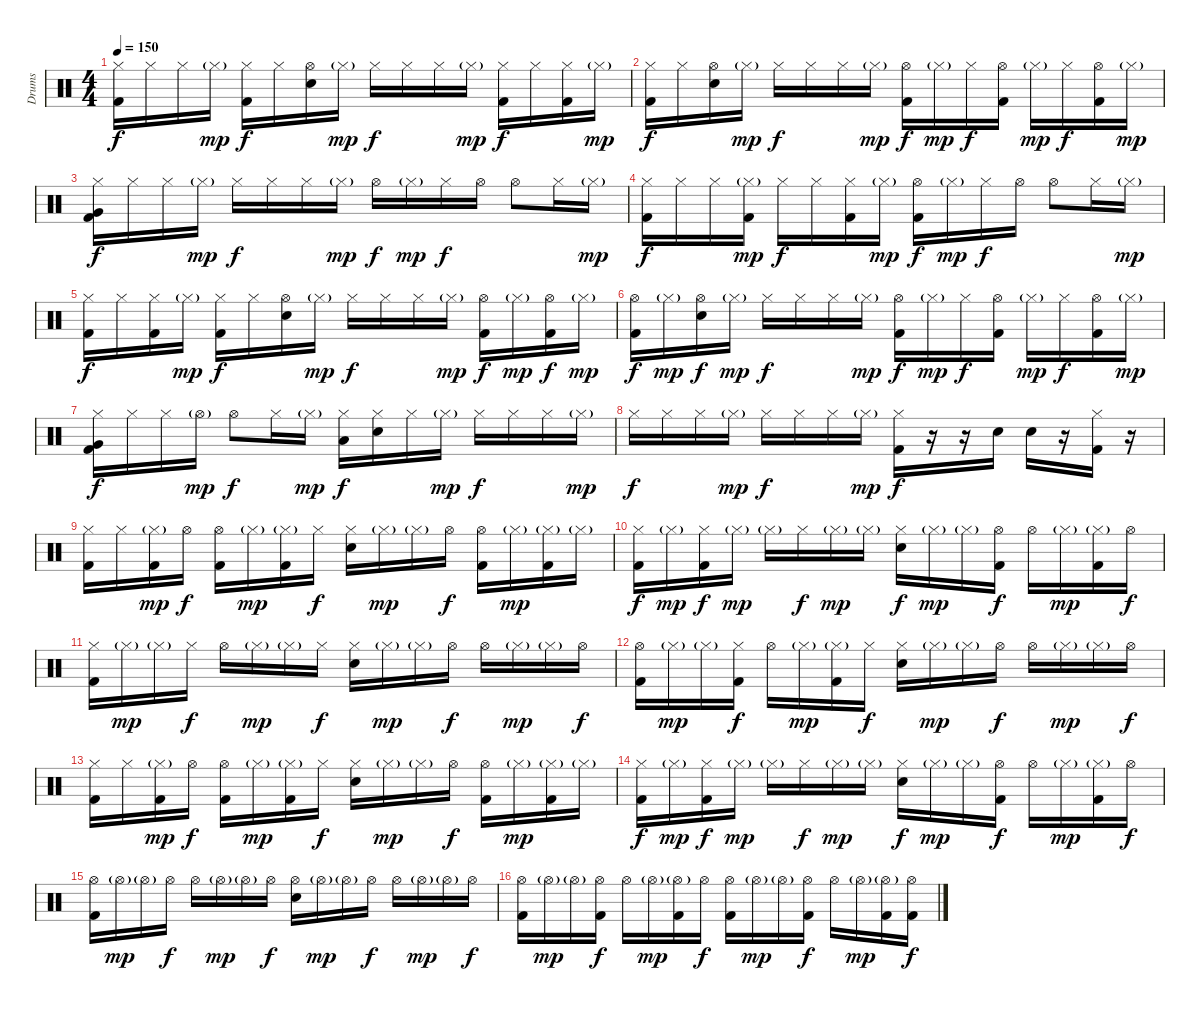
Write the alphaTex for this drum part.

\track ("Drums" "Drums") {instrument percussion}
\staff {score}
\articulation defaults
\ts (4 4)
\tempo 150
\clef neutral
\ks c
("Hi-Hat (closed)" "Kick (hit) 2").16{dy f} "Hi-Hat (closed)".16 "Hi-Hat (closed)".16 "Hi-Hat (closed)"{g}.16{dy mp} ("Hi-Hat (closed)" "Kick (hit) 2").16{dy f} "Hi-Hat (closed)".16 ("Hi-Hat (open)" "Snare (hit) 2").16 "Hi-Hat (closed)"{g}.16{dy mp} "Hi-Hat (closed)".16{dy f} "Hi-Hat (closed)".16 "Hi-Hat (closed)".16 "Hi-Hat (closed)"{g}.16{dy mp} ("Hi-Hat (closed)" "Kick (hit) 2").16{dy f} "Hi-Hat (closed)".16 ("Hi-Hat (closed)" "Kick (hit) 2").16 "Hi-Hat (closed)"{g}.16{dy mp} |
("Hi-Hat (closed)" "Kick (hit) 2").16{dy f} "Hi-Hat (closed)".16 ("Hi-Hat (open)" "Snare (hit) 2").16 "Hi-Hat (closed)"{g}.16{dy mp} "Hi-Hat (closed)".16{dy f} "Hi-Hat (closed)".16 "Hi-Hat (closed)".16 "Hi-Hat (closed)"{g}.16{dy mp} ("Hi-Hat (open)" "Kick (hit) 2").16{dy f} "Hi-Hat (closed)"{g}.16{dy mp} "Hi-Hat (closed)".16{dy f} ("Hi-Hat (open)" "Kick (hit) 2").16 "Hi-Hat (closed)"{g}.16{dy mp} "Hi-Hat (closed)".16{dy f} ("Hi-Hat (open)" "Kick (hit) 2").16 "Hi-Hat (closed)"{g}.16{dy mp} |
("Hi-Hat (closed)" "Very Low Tom (hit)" "Kick (hit) 2").16{dy f} "Hi-Hat (closed)".16 "Hi-Hat (closed)".16 "Hi-Hat (closed)"{g}.16{dy mp} "Hi-Hat (closed)".16{dy f} "Hi-Hat (closed)".16 "Hi-Hat (closed)".16 "Hi-Hat (closed)"{g}.16{dy mp} "Hi-Hat (open)".16{dy f} "Hi-Hat (closed)"{g}.16{dy mp} "Hi-Hat (closed)".16{dy f} "Hi-Hat (open)".16 "Hi-Hat (open)".8 "Hi-Hat (closed)".16 "Hi-Hat (closed)"{g}.16{dy mp} |
("Hi-Hat (closed)" "Kick (hit) 2").16{dy f} "Hi-Hat (closed)".16 "Hi-Hat (closed)".16 ("Hi-Hat (closed)"{g} "Kick (hit) 2").16{dy mp} "Hi-Hat (closed)".16{dy f} "Hi-Hat (closed)".16 ("Hi-Hat (closed)" "Kick (hit) 2").16 "Hi-Hat (closed)"{g}.16{dy mp} ("Hi-Hat (open)" "Kick (hit) 2").16{dy f} "Hi-Hat (closed)"{g}.16{dy mp} "Hi-Hat (closed)".16{dy f} "Hi-Hat (open)".16 "Hi-Hat (open)".8 "Hi-Hat (closed)".16 "Hi-Hat (closed)"{g}.16{dy mp} |
("Hi-Hat (closed)" "Kick (hit) 2").16{dy f} "Hi-Hat (closed)".16 ("Hi-Hat (closed)" "Kick (hit) 2").16 "Hi-Hat (closed)"{g}.16{dy mp} ("Hi-Hat (closed)" "Kick (hit) 2").16{dy f} "Hi-Hat (closed)".16 ("Hi-Hat (open)" "Snare (hit) 2").16 "Hi-Hat (closed)"{g}.16{dy mp} "Hi-Hat (closed)".16{dy f} "Hi-Hat (closed)".16 "Hi-Hat (closed)".16 "Hi-Hat (closed)"{g}.16{dy mp} ("Hi-Hat (open)" "Kick (hit) 2").16{dy f} "Hi-Hat (closed)"{g}.16{dy mp} ("Hi-Hat (open)" "Kick (hit) 2").16{dy f} "Hi-Hat (closed)"{g}.16{dy mp} |
("Hi-Hat (open)" "Kick (hit) 2").16{dy f} "Hi-Hat (closed)"{g}.16{dy mp} ("Hi-Hat (open)" "Snare (hit) 2").16{dy f} "Hi-Hat (closed)"{g}.16{dy mp} "Hi-Hat (closed)".16{dy f} "Hi-Hat (closed)".16 "Hi-Hat (closed)".16 "Hi-Hat (closed)"{g}.16{dy mp} ("Hi-Hat (open)" "Kick (hit) 2").16{dy f} "Hi-Hat (closed)"{g}.16{dy mp} "Hi-Hat (closed)".16{dy f} ("Hi-Hat (open)" "Kick (hit) 2").16 "Hi-Hat (closed)"{g}.16{dy mp} "Hi-Hat (closed)".16{dy f} ("Hi-Hat (open)" "Kick (hit) 2").16 "Hi-Hat (closed)"{g}.16{dy mp} |
("Hi-Hat (closed)" "Very Low Tom (hit)" "Kick (hit) 2").16{dy f} "Hi-Hat (closed)".16 "Hi-Hat (closed)".16 "Hi-Hat (open)"{g}.16{dy mp} "Hi-Hat (open)".8{dy f} "Hi-Hat (closed)".16 "Hi-Hat (closed)"{g}.16{dy mp} ("Hi-Hat (closed)" "Low Tom (hit)").16{dy f} ("Hi-Hat (closed)" "Snare (hit) 2").16 "Hi-Hat (closed)".16 "Hi-Hat (closed)"{g}.16{dy mp} "Hi-Hat (closed)".16{dy f} "Hi-Hat (closed)".16 "Hi-Hat (closed)".16 "Hi-Hat (closed)"{g}.16{dy mp} |
"Hi-Hat (closed)".16{dy f} "Hi-Hat (closed)".16 "Hi-Hat (closed)".16 "Hi-Hat (closed)"{g}.16{dy mp} "Hi-Hat (closed)".16{dy f} "Hi-Hat (closed)".16 "Hi-Hat (closed)".16 "Hi-Hat (closed)"{g}.16{dy mp} ("Hi-Hat (closed)" "Kick (hit) 2").16{dy f} r.16 r.16 "Snare (hit) 2".16 "Snare (hit) 2".16 r.16 ("Hi-Hat (closed)" "Kick (hit) 2").16 r.16 |
("Hi-Hat (closed)" "Kick (hit) 2").16 "Hi-Hat (closed)".16 ("Hi-Hat (closed)"{g} "Kick (hit) 2").16{dy mp} "Hi-Hat (open)".16{dy f} ("Hi-Hat (open)" "Kick (hit) 2").16 "Hi-Hat (closed)"{g}.16{dy mp} ("Hi-Hat (closed)"{g} "Kick (hit) 2").16 "Hi-Hat (closed)".16{dy f} ("Hi-Hat (closed)" "Snare (hit) 2").16 "Hi-Hat (closed)"{g}.16{dy mp} "Hi-Hat (closed)"{g}.16 "Hi-Hat (open)".16{dy f} ("Hi-Hat (open)" "Kick (hit) 2").16 "Hi-Hat (closed)"{g}.16{dy mp} ("Hi-Hat (closed)"{g} "Kick (hit) 2").16 "Hi-Hat (closed)"{g}.16 |
("Hi-Hat (closed)" "Kick (hit) 2").16{dy f} "Hi-Hat (closed)"{g}.16{dy mp} ("Hi-Hat (closed)" "Kick (hit) 2").16{dy f} "Hi-Hat (closed)"{g}.16{dy mp} "Hi-Hat (closed)"{g}.16 "Hi-Hat (closed)".16{dy f} "Hi-Hat (closed)"{g}.16{dy mp} "Hi-Hat (closed)"{g}.16 ("Hi-Hat (closed)" "Snare (hit) 2").16{dy f} "Hi-Hat (closed)"{g}.16{dy mp} "Hi-Hat (closed)"{g}.16 ("Hi-Hat (open)" "Kick (hit) 2").16{dy f} "Hi-Hat (open)".16 "Hi-Hat (closed)"{g}.16{dy mp} ("Hi-Hat (closed)"{g} "Kick (hit) 2").16 "Hi-Hat (open)".16{dy f} |
("Hi-Hat (closed)" "Kick (hit) 2").16 "Hi-Hat (closed)"{g}.16{dy mp} "Hi-Hat (closed)"{g}.16 "Hi-Hat (closed)".16{dy f} "Hi-Hat (open)".16 "Hi-Hat (closed)"{g}.16{dy mp} "Hi-Hat (closed)"{g}.16 "Hi-Hat (closed)".16{dy f} ("Hi-Hat (closed)" "Snare (hit) 2").16 "Hi-Hat (closed)"{g}.16{dy mp} "Hi-Hat (closed)"{g}.16 "Hi-Hat (open)".16{dy f} "Hi-Hat (open)".16 "Hi-Hat (closed)"{g}.16{dy mp} "Hi-Hat (closed)"{g}.16 "Hi-Hat (open)".16{dy f} |
("Hi-Hat (open)" "Kick (hit) 2").16 "Hi-Hat (closed)"{g}.16{dy mp} "Hi-Hat (closed)"{g}.16 ("Hi-Hat (closed)" "Kick (hit) 2").16{dy f} "Hi-Hat (open)".16 "Hi-Hat (closed)"{g}.16{dy mp} ("Hi-Hat (closed)"{g} "Kick (hit) 2").16 "Hi-Hat (closed)".16{dy f} ("Hi-Hat (closed)" "Snare (hit) 2").16 "Hi-Hat (closed)"{g}.16{dy mp} "Hi-Hat (closed)"{g}.16 "Hi-Hat (open)".16{dy f} "Hi-Hat (open)".16 "Hi-Hat (closed)"{g}.16{dy mp} "Hi-Hat (closed)"{g}.16 "Hi-Hat (open)".16{dy f} |
("Hi-Hat (closed)" "Kick (hit) 2").16 "Hi-Hat (closed)".16 ("Hi-Hat (closed)"{g} "Kick (hit) 2").16{dy mp} "Hi-Hat (open)".16{dy f} ("Hi-Hat (open)" "Kick (hit) 2").16 "Hi-Hat (closed)"{g}.16{dy mp} ("Hi-Hat (closed)"{g} "Kick (hit) 2").16 "Hi-Hat (closed)".16{dy f} ("Hi-Hat (closed)" "Snare (hit) 2").16 "Hi-Hat (closed)"{g}.16{dy mp} "Hi-Hat (closed)"{g}.16 "Hi-Hat (open)".16{dy f} ("Hi-Hat (open)" "Kick (hit) 2").16 "Hi-Hat (closed)"{g}.16{dy mp} ("Hi-Hat (closed)"{g} "Kick (hit) 2").16 "Hi-Hat (closed)"{g}.16 |
("Hi-Hat (closed)" "Kick (hit) 2").16{dy f} "Hi-Hat (closed)"{g}.16{dy mp} ("Hi-Hat (closed)" "Kick (hit) 2").16{dy f} "Hi-Hat (closed)"{g}.16{dy mp} "Hi-Hat (closed)"{g}.16 "Hi-Hat (closed)".16{dy f} "Hi-Hat (closed)"{g}.16{dy mp} "Hi-Hat (closed)"{g}.16 ("Hi-Hat (closed)" "Snare (hit) 2").16{dy f} "Hi-Hat (closed)"{g}.16{dy mp} "Hi-Hat (closed)"{g}.16 ("Hi-Hat (open)" "Kick (hit) 2").16{dy f} "Hi-Hat (open)".16 "Hi-Hat (closed)"{g}.16{dy mp} ("Hi-Hat (closed)"{g} "Kick (hit) 2").16 "Hi-Hat (open)".16{dy f} |
("Hi-Hat (open)" "Kick (hit) 2").16 "Hi-Hat (open)"{g}.16{dy mp} "Hi-Hat (open)"{g}.16 "Hi-Hat (open)".16{dy f} "Hi-Hat (open)".16 "Hi-Hat (open)"{g}.16{dy mp} "Hi-Hat (open)"{g}.16 "Hi-Hat (open)".16{dy f} ("Hi-Hat (open)" "Snare (hit) 2").16 "Hi-Hat (open)"{g}.16{dy mp} "Hi-Hat (open)"{g}.16 "Hi-Hat (open)".16{dy f} "Hi-Hat (open)".16 "Hi-Hat (open)"{g}.16{dy mp} "Hi-Hat (open)"{g}.16 "Hi-Hat (open)".16{dy f} |
("Hi-Hat (open)" "Kick (hit) 2").16 "Hi-Hat (open)"{g}.16{dy mp} "Hi-Hat (open)"{g}.16 ("Hi-Hat (open)" "Kick (hit) 2").16{dy f} "Hi-Hat (open)".16 "Hi-Hat (open)"{g}.16{dy mp} ("Hi-Hat (open)"{g} "Kick (hit) 2").16 "Hi-Hat (open)".16{dy f} ("Hi-Hat (open)" "Kick (hit) 2").16 "Hi-Hat (open)"{g}.16{dy mp} "Hi-Hat (open)"{g}.16 ("Hi-Hat (open)" "Kick (hit) 2").16{dy f} "Hi-Hat (open)".16 "Hi-Hat (open)"{g}.16{dy mp} ("Hi-Hat (open)"{g} "Kick (hit) 2").16 ("Hi-Hat (open)" "Kick (hit) 2").16{dy f}
